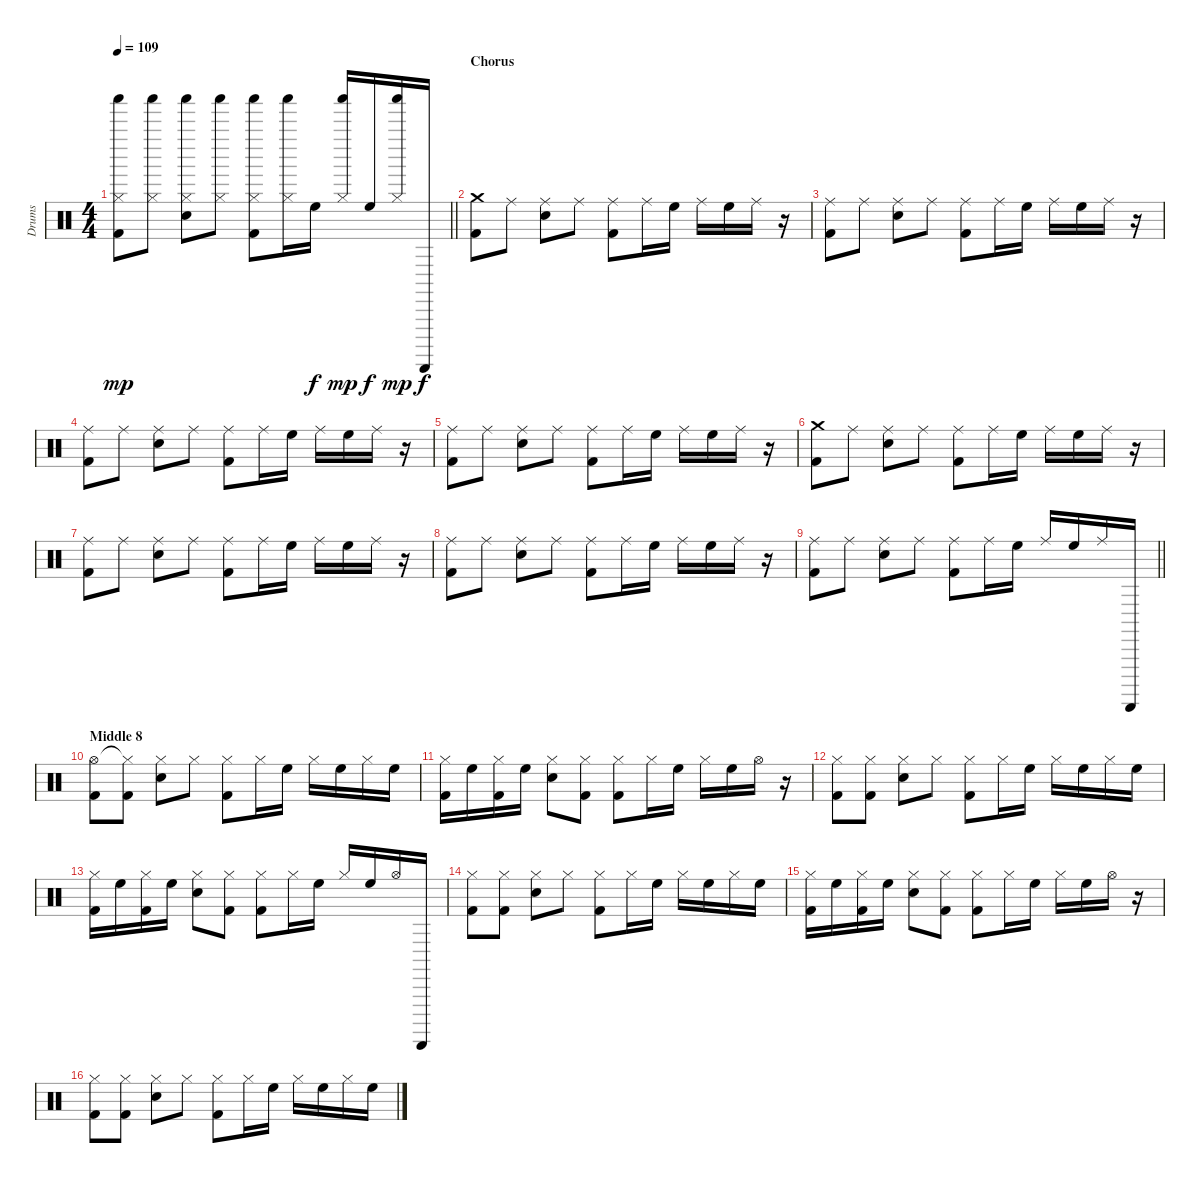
\track ("Drums" "Drums") {instrument percussion}
\staff {score}
\articulation defaults
\ts (4 4)
\tempo 109
\clef neutral
\barLineRight lightlight
\ks c
("Hi-Hat (closed)" "Shaker (hit)" "Kick (hit) 2").8{dy mp} ("Hi-Hat (closed)" "Shaker (hit)").8 ("Hi-Hat (closed)" "Shaker (hit)" "Electric Snare (hit)").8 ("Hi-Hat (closed)" "Shaker (hit)").8 ("Hi-Hat (closed)" "Shaker (hit)" "Kick (hit) 2").8 ("Hi-Hat (closed)" "Shaker (hit)").16 "High Floor Tom (hit)".16{dy f} ("Hi-Hat (closed)" "Shaker (hit)").16{dy mp} "High Floor Tom (hit)".16{dy f} ("Hi-Hat (closed)" "Shaker (hit)").16{dy mp} "Guiro (scrap-return)".16{dy f} |
\section ("" "Chorus")
("Crash medium (hit)" "Kick (hit) 2").8 "Ride (middle)".8 ("Ride (middle)" "Electric Snare (hit)").8 "Ride (middle)".8 ("Ride (middle)" "Kick (hit) 2").8 "Ride (middle)".16 "High Floor Tom (hit)".16 "Ride (middle)".16 "High Floor Tom (hit)".16 "Ride (middle)".16 r.16 |
("Ride (middle)" "Kick (hit) 2").8 "Ride (middle)".8 ("Ride (middle)" "Electric Snare (hit)").8 "Ride (middle)".8 ("Ride (middle)" "Kick (hit) 2").8 "Ride (middle)".16 "High Floor Tom (hit)".16 "Ride (middle)".16 "High Floor Tom (hit)".16 "Ride (middle)".16 r.16 |
("Ride (middle)" "Kick (hit) 2").8 "Ride (middle)".8 ("Ride (middle)" "Electric Snare (hit)").8 "Ride (middle)".8 ("Ride (middle)" "Kick (hit) 2").8 "Ride (middle)".16 "High Floor Tom (hit)".16 "Ride (middle)".16 "High Floor Tom (hit)".16 "Ride (middle)".16 r.16 |
("Ride (middle)" "Kick (hit) 2").8 "Ride (middle)".8 ("Ride (middle)" "Electric Snare (hit)").8 "Ride (middle)".8 ("Ride (middle)" "Kick (hit) 2").8 "Ride (middle)".16 "High Floor Tom (hit)".16 "Ride (middle)".16 "High Floor Tom (hit)".16 "Ride (middle)".16 r.16 |
("Crash medium (hit)" "Kick (hit) 2").8 "Ride (middle)".8 ("Ride (middle)" "Electric Snare (hit)").8 "Ride (middle)".8 ("Ride (middle)" "Kick (hit) 2").8 "Ride (middle)".16 "High Floor Tom (hit)".16 "Ride (middle)".16 "High Floor Tom (hit)".16 "Ride (middle)".16 r.16 |
("Ride (middle)" "Kick (hit) 2").8 "Ride (middle)".8 ("Ride (middle)" "Electric Snare (hit)").8 "Ride (middle)".8 ("Ride (middle)" "Kick (hit) 2").8 "Ride (middle)".16 "High Floor Tom (hit)".16 "Ride (middle)".16 "High Floor Tom (hit)".16 "Ride (middle)".16 r.16 |
("Ride (middle)" "Kick (hit) 2").8 "Ride (middle)".8 ("Ride (middle)" "Electric Snare (hit)").8 "Ride (middle)".8 ("Ride (middle)" "Kick (hit) 2").8 "Ride (middle)".16 "High Floor Tom (hit)".16 "Ride (middle)".16 "High Floor Tom (hit)".16 "Ride (middle)".16 r.16 |
\barLineRight lightlight
("Ride (middle)" "Kick (hit) 2").8 "Ride (middle)".8 ("Ride (middle)" "Electric Snare (hit)").8 "Ride (middle)".8 ("Ride (middle)" "Kick (hit) 2").8 "Ride (middle)".16 "High Floor Tom (hit)".16 "Ride (middle)".16 "High Floor Tom (hit)".16 "Ride (middle)".16 "Guiro (scrap-return)".16 |
\section ("" "Middle 8")
("Hi-Hat (open)" "Kick (hit) 2").8 ("Hi-Hat (closed)"{t} "Kick (hit) 2").8 ("Hi-Hat (closed)" "Electric Snare (hit)").8 "Hi-Hat (closed)".8 ("Hi-Hat (closed)" "Kick (hit) 2").8 "Hi-Hat (closed)".16 "High Floor Tom (hit)".16 "Hi-Hat (closed)".16 "High Floor Tom (hit)".16 "Hi-Hat (closed)".16 "High Floor Tom (hit)".16 |
("Hi-Hat (closed)" "Kick (hit) 2").16 "High Floor Tom (hit)".16 ("Hi-Hat (closed)" "Kick (hit) 2").16 "High Floor Tom (hit)".16 ("Hi-Hat (closed)" "Electric Snare (hit)").8 ("Hi-Hat (closed)" "Kick (hit) 2").8 ("Hi-Hat (closed)" "Kick (hit) 2").8 "Hi-Hat (closed)".16 "High Floor Tom (hit)".16 "Hi-Hat (closed)".16 "High Floor Tom (hit)".16 "Hi-Hat (open)".16 r.16 |
("Hi-Hat (closed)" "Kick (hit) 2").8 ("Hi-Hat (closed)" "Kick (hit) 2").8 ("Hi-Hat (closed)" "Electric Snare (hit)").8 "Hi-Hat (closed)".8 ("Hi-Hat (closed)" "Kick (hit) 2").8 "Hi-Hat (closed)".16 "High Floor Tom (hit)".16 "Hi-Hat (closed)".16 "High Floor Tom (hit)".16 "Hi-Hat (closed)".16 "High Floor Tom (hit)".16 |
("Hi-Hat (closed)" "Kick (hit) 2").16 "High Floor Tom (hit)".16 ("Hi-Hat (closed)" "Kick (hit) 2").16 "High Floor Tom (hit)".16 ("Hi-Hat (closed)" "Electric Snare (hit)").8 ("Hi-Hat (closed)" "Kick (hit) 2").8 ("Hi-Hat (closed)" "Kick (hit) 2").8 "Hi-Hat (closed)".16 "High Floor Tom (hit)".16 "Hi-Hat (closed)".16 "High Floor Tom (hit)".16 "Hi-Hat (open)".16 "Guiro (scrap-return)".16 |
("Hi-Hat (closed)" "Kick (hit) 2").8 ("Hi-Hat (closed)" "Kick (hit) 2").8 ("Hi-Hat (closed)" "Electric Snare (hit)").8 "Hi-Hat (closed)".8 ("Hi-Hat (closed)" "Kick (hit) 2").8 "Hi-Hat (closed)".16 "High Floor Tom (hit)".16 "Hi-Hat (closed)".16 "High Floor Tom (hit)".16 "Hi-Hat (closed)".16 "High Floor Tom (hit)".16 |
("Hi-Hat (closed)" "Kick (hit) 2").16 "High Floor Tom (hit)".16 ("Hi-Hat (closed)" "Kick (hit) 2").16 "High Floor Tom (hit)".16 ("Hi-Hat (closed)" "Electric Snare (hit)").8 ("Hi-Hat (closed)" "Kick (hit) 2").8 ("Hi-Hat (closed)" "Kick (hit) 2").8 "Hi-Hat (closed)".16 "High Floor Tom (hit)".16 "Hi-Hat (closed)".16 "High Floor Tom (hit)".16 "Hi-Hat (open)".16 r.16 |
("Hi-Hat (closed)" "Kick (hit) 2").8 ("Hi-Hat (closed)" "Kick (hit) 2").8 ("Hi-Hat (closed)" "Electric Snare (hit)").8 "Hi-Hat (closed)".8 ("Hi-Hat (closed)" "Kick (hit) 2").8 "Hi-Hat (closed)".16 "High Floor Tom (hit)".16 "Hi-Hat (closed)".16 "High Floor Tom (hit)".16 "Hi-Hat (closed)".16 "High Floor Tom (hit)".16
